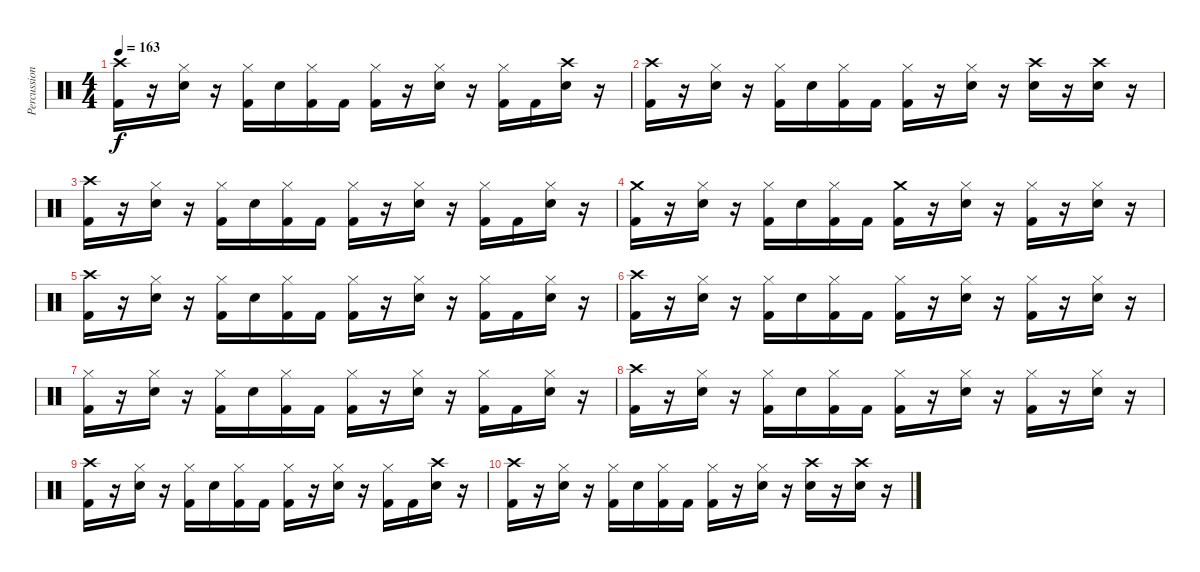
\track ("Percussion" "Percussion") {instrument percussion}
\staff {score}
\articulation defaults
\ts (4 4)
\tempo 163
\clef neutral
\ks c
("Crash high (hit)" "Kick (hit) 2").16{dy f} r.16 ("Hi-Hat (closed)" "Snare (hit) 2").16 r.16 ("Hi-Hat (closed)" "Kick (hit) 2").16 "Snare (hit) 2".16 ("Hi-Hat (closed)" "Kick (hit) 2").16 "Kick (hit) 2".16 ("Hi-Hat (closed)" "Kick (hit) 2").16 r.16 ("Hi-Hat (closed)" "Snare (hit) 2").16 r.16 ("Hi-Hat (closed)" "Kick (hit) 2").16 "Kick (hit) 2".16 ("Crash high (hit)" "Snare (hit) 2").16 r.16 |
("Crash high (hit)" "Kick (hit) 2").16 r.16 ("Hi-Hat (closed)" "Snare (hit) 2").16 r.16 ("Hi-Hat (closed)" "Kick (hit) 2").16 "Snare (hit) 2".16 ("Hi-Hat (closed)" "Kick (hit) 2").16 "Kick (hit) 2".16 ("Hi-Hat (closed)" "Kick (hit) 2").16 r.16 ("Hi-Hat (closed)" "Snare (hit) 2").16 r.16 ("Crash high (hit)" "Snare (hit) 2").16 r.16 ("Crash high (hit)" "Snare (hit) 2").16 r.16 |
("Crash high (hit)" "Kick (hit) 2").16 r.16 ("Hi-Hat (closed)" "Snare (hit) 2").16 r.16 ("Hi-Hat (closed)" "Kick (hit) 2").16 "Snare (hit) 2".16 ("Hi-Hat (closed)" "Kick (hit) 2").16 "Kick (hit) 2".16 ("Hi-Hat (closed)" "Kick (hit) 2").16 r.16 ("Hi-Hat (closed)" "Snare (hit) 2").16 r.16 ("Hi-Hat (closed)" "Kick (hit) 2").16 "Kick (hit) 2".16 ("Hi-Hat (closed)" "Snare (hit) 2").16 r.16 |
("Crash medium (hit)" "Kick (hit) 2").16 r.16 ("Hi-Hat (closed)" "Snare (hit) 2").16 r.16 ("Hi-Hat (closed)" "Kick (hit) 2").16 "Snare (hit) 2".16 ("Hi-Hat (closed)" "Kick (hit) 2").16 "Kick (hit) 2".16 ("Crash medium (hit)" "Kick (hit) 2").16 r.16 ("Hi-Hat (closed)" "Snare (hit) 2").16 r.16 ("Hi-Hat (closed)" "Kick (hit) 2").16 r.16 ("Hi-Hat (closed)" "Snare (hit) 2").16 r.16 |
("Crash high (hit)" "Kick (hit) 2").16 r.16 ("Hi-Hat (closed)" "Snare (hit) 2").16 r.16 ("Hi-Hat (closed)" "Kick (hit) 2").16 "Snare (hit) 2".16 ("Hi-Hat (closed)" "Kick (hit) 2").16 "Kick (hit) 2".16 ("Hi-Hat (closed)" "Kick (hit) 2").16 r.16 ("Hi-Hat (closed)" "Snare (hit) 2").16 r.16 ("Hi-Hat (closed)" "Kick (hit) 2").16 "Kick (hit) 2".16 ("Hi-Hat (closed)" "Snare (hit) 2").16 r.16 |
("Crash high (hit)" "Kick (hit) 2").16 r.16 ("Hi-Hat (closed)" "Snare (hit) 2").16 r.16 ("Hi-Hat (closed)" "Kick (hit) 2").16 "Snare (hit) 2".16 ("Hi-Hat (closed)" "Kick (hit) 2").16 "Kick (hit) 2".16 ("Hi-Hat (closed)" "Kick (hit) 2").16 r.16 ("Hi-Hat (closed)" "Snare (hit) 2").16 r.16 ("Hi-Hat (closed)" "Kick (hit) 2").16 r.16 ("Hi-Hat (closed)" "Snare (hit) 2").16 r.16 |
("Hi-Hat (closed)" "Kick (hit) 2").16 r.16 ("Hi-Hat (closed)" "Snare (hit) 2").16 r.16 ("Hi-Hat (closed)" "Kick (hit) 2").16 "Snare (hit) 2".16 ("Hi-Hat (closed)" "Kick (hit) 2").16 "Kick (hit) 2".16 ("Hi-Hat (closed)" "Kick (hit) 2").16 r.16 ("Hi-Hat (closed)" "Snare (hit) 2").16 r.16 ("Hi-Hat (closed)" "Kick (hit) 2").16 "Kick (hit) 2".16 ("Hi-Hat (closed)" "Snare (hit) 2").16 r.16 |
("Crash high (hit)" "Kick (hit) 2").16{volume 0} r.16 ("Hi-Hat (closed)" "Snare (hit) 2").16 r.16 ("Hi-Hat (closed)" "Kick (hit) 2").16 "Snare (hit) 2".16 ("Hi-Hat (closed)" "Kick (hit) 2").16 "Kick (hit) 2".16 ("Hi-Hat (closed)" "Kick (hit) 2").16 r.16 ("Hi-Hat (closed)" "Snare (hit) 2").16 r.16 ("Hi-Hat (closed)" "Kick (hit) 2").16 r.16 ("Hi-Hat (closed)" "Snare (hit) 2").16 r.16 |
("Crash high (hit)" "Kick (hit) 2").16 r.16 ("Hi-Hat (closed)" "Snare (hit) 2").16 r.16 ("Hi-Hat (closed)" "Kick (hit) 2").16 "Snare (hit) 2".16 ("Hi-Hat (closed)" "Kick (hit) 2").16 "Kick (hit) 2".16 ("Hi-Hat (closed)" "Kick (hit) 2").16 r.16 ("Hi-Hat (closed)" "Snare (hit) 2").16 r.16 ("Hi-Hat (closed)" "Kick (hit) 2").16 "Kick (hit) 2".16 ("Crash high (hit)" "Snare (hit) 2").16 r.16 |
("Crash high (hit)" "Kick (hit) 2").16 r.16 ("Hi-Hat (closed)" "Snare (hit) 2").16 r.16 ("Hi-Hat (closed)" "Kick (hit) 2").16 "Snare (hit) 2".16 ("Hi-Hat (closed)" "Kick (hit) 2").16 "Kick (hit) 2".16 ("Hi-Hat (closed)" "Kick (hit) 2").16 r.16 ("Hi-Hat (closed)" "Snare (hit) 2").16 r.16 ("Crash high (hit)" "Snare (hit) 2").16 r.16 ("Crash high (hit)" "Snare (hit) 2").16 r.16
